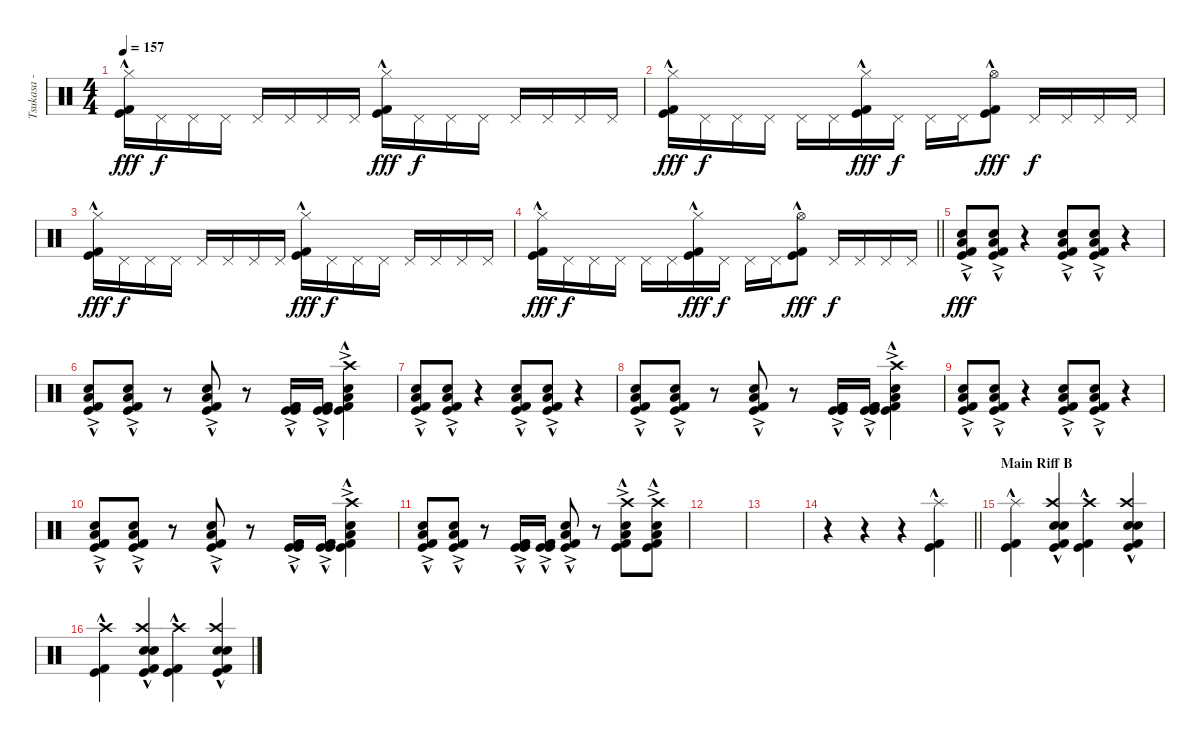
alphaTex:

\track ("Tsukasa - Drums" "Tsukasa - ") {instrument percussion}
\staff {score}
\articulation defaults
\ts (4 4)
\tempo 157
\clef neutral
\ks c
("Hi-Hat (closed)" "Kick (hit)"{hac} "Kick (hit) 2"{hac}).16{dy fff} "Pedal Hi-Hat (hit)".16{dy f} "Pedal Hi-Hat (hit)".16 "Pedal Hi-Hat (hit)".16 "Pedal Hi-Hat (hit)".16 "Pedal Hi-Hat (hit)".16 "Pedal Hi-Hat (hit)".16 "Pedal Hi-Hat (hit)".16 ("Hi-Hat (closed)" "Kick (hit)"{hac} "Kick (hit) 2"{hac}).16{dy fff} "Pedal Hi-Hat (hit)".16{dy f} "Pedal Hi-Hat (hit)".16 "Pedal Hi-Hat (hit)".16 "Pedal Hi-Hat (hit)".16 "Pedal Hi-Hat (hit)".16 "Pedal Hi-Hat (hit)".16 "Pedal Hi-Hat (hit)".16 |
("Hi-Hat (closed)" "Kick (hit)"{hac} "Kick (hit) 2"{hac}).16{dy fff} "Pedal Hi-Hat (hit)".16{dy f} "Pedal Hi-Hat (hit)".16 "Pedal Hi-Hat (hit)".16 "Pedal Hi-Hat (hit)".16 "Pedal Hi-Hat (hit)".16 ("Hi-Hat (closed)" "Kick (hit)"{hac} "Kick (hit) 2"{hac}).16{dy fff} "Pedal Hi-Hat (hit)".16{dy f} "Pedal Hi-Hat (hit)".16 "Pedal Hi-Hat (hit)".16 ("Hi-Hat (open)" "Kick (hit)"{hac} "Kick (hit) 2"{hac}).8{dy fff} "Pedal Hi-Hat (hit)".16{dy f} "Pedal Hi-Hat (hit)".16 "Pedal Hi-Hat (hit)".16 "Pedal Hi-Hat (hit)".16 |
("Hi-Hat (closed)" "Kick (hit)"{hac} "Kick (hit) 2"{hac}).16{dy fff} "Pedal Hi-Hat (hit)".16{dy f} "Pedal Hi-Hat (hit)".16 "Pedal Hi-Hat (hit)".16 "Pedal Hi-Hat (hit)".16 "Pedal Hi-Hat (hit)".16 "Pedal Hi-Hat (hit)".16 "Pedal Hi-Hat (hit)".16 ("Hi-Hat (closed)" "Kick (hit)"{hac} "Kick (hit) 2"{hac}).16{dy fff} "Pedal Hi-Hat (hit)".16{dy f} "Pedal Hi-Hat (hit)".16 "Pedal Hi-Hat (hit)".16 "Pedal Hi-Hat (hit)".16 "Pedal Hi-Hat (hit)".16 "Pedal Hi-Hat (hit)".16 "Pedal Hi-Hat (hit)".16 |
\barLineRight lightlight
("Hi-Hat (closed)" "Kick (hit)"{hac} "Kick (hit) 2"{hac}).16{dy fff} "Pedal Hi-Hat (hit)".16{dy f} "Pedal Hi-Hat (hit)".16 "Pedal Hi-Hat (hit)".16 "Pedal Hi-Hat (hit)".16 "Pedal Hi-Hat (hit)".16 ("Hi-Hat (closed)" "Kick (hit)"{hac} "Kick (hit) 2"{hac}).16{dy fff} "Pedal Hi-Hat (hit)".16{dy f} "Pedal Hi-Hat (hit)".16 "Pedal Hi-Hat (hit)".16 ("Hi-Hat (open)" "Kick (hit)"{hac} "Kick (hit) 2"{hac}).8{dy fff} "Pedal Hi-Hat (hit)".16{dy f} "Pedal Hi-Hat (hit)".16 "Pedal Hi-Hat (hit)".16 "Pedal Hi-Hat (hit)".16 |
\section ("" "")
("Electric Snare (hit)"{ac} "Low Tom (hit)" "Kick (hit)"{hac} "Kick (hit) 2"{hac}).8{dy fff} ("Electric Snare (hit)"{ac} "Low Tom (hit)" "Kick (hit)"{hac} "Kick (hit) 2"{hac}).8 r.4 ("Electric Snare (hit)"{ac} "Low Tom (hit)" "Kick (hit)"{hac} "Kick (hit) 2"{hac}).8 ("Electric Snare (hit)"{ac} "Low Tom (hit)" "Kick (hit)"{hac} "Kick (hit) 2"{hac}).8 r.4 |
("Electric Snare (hit)"{ac} "Low Tom (hit)" "Kick (hit)"{hac} "Kick (hit) 2"{hac}).8 ("Electric Snare (hit)"{ac} "Low Tom (hit)" "Kick (hit)"{hac} "Kick (hit) 2"{hac}).8 r.8 ("Electric Snare (hit)"{ac} "Low Tom (hit)" "Kick (hit)"{hac} "Kick (hit) 2"{hac}).8 r.8 ("Kick (hit)"{ac} "Kick (hit) 2"{ac} "Kick (hit)"{hac} "Kick (hit) 2"{hac}).16 ("Kick (hit)"{ac} "Kick (hit) 2"{ac} "Kick (hit) 2"{hac} "Kick (hit)"{hac}).16 ("Crash high (hit)" "Electric Snare (hit)"{ac} "Low Tom (hit)" "Kick (hit)"{hac} "Kick (hit) 2"{hac}).4 |
("Electric Snare (hit)"{ac} "Low Tom (hit)" "Kick (hit)"{hac} "Kick (hit) 2"{hac}).8 ("Electric Snare (hit)"{ac} "Low Tom (hit)" "Kick (hit)"{hac} "Kick (hit) 2"{hac}).8 r.4 ("Electric Snare (hit)"{ac} "Low Tom (hit)" "Kick (hit)"{hac} "Kick (hit) 2"{hac}).8 ("Electric Snare (hit)"{ac} "Low Tom (hit)" "Kick (hit)"{hac} "Kick (hit) 2"{hac}).8 r.4 |
("Electric Snare (hit)"{ac} "Low Tom (hit)" "Kick (hit)"{hac} "Kick (hit) 2"{hac}).8 ("Electric Snare (hit)"{ac} "Low Tom (hit)" "Kick (hit)"{hac} "Kick (hit) 2"{hac}).8 r.8 ("Electric Snare (hit)"{ac} "Low Tom (hit)" "Kick (hit)"{hac} "Kick (hit) 2"{hac}).8 r.8 ("Kick (hit)"{ac} "Kick (hit) 2"{ac} "Kick (hit)"{hac} "Kick (hit) 2"{hac}).16 ("Kick (hit)"{ac} "Kick (hit) 2"{ac} "Kick (hit) 2"{hac} "Kick (hit)"{hac}).16 ("Crash high (hit)" "Electric Snare (hit)"{ac} "Low Tom (hit)" "Kick (hit)"{hac} "Kick (hit) 2"{hac}).4 |
("Electric Snare (hit)"{ac} "Low Tom (hit)" "Kick (hit)"{hac} "Kick (hit) 2"{hac}).8 ("Electric Snare (hit)"{ac} "Low Tom (hit)" "Kick (hit)"{hac} "Kick (hit) 2"{hac}).8 r.4 ("Electric Snare (hit)"{ac} "Low Tom (hit)" "Kick (hit)"{hac} "Kick (hit) 2"{hac}).8 ("Electric Snare (hit)"{ac} "Low Tom (hit)" "Kick (hit)"{hac} "Kick (hit) 2"{hac}).8 r.4 |
("Electric Snare (hit)"{ac} "Low Tom (hit)" "Kick (hit)"{hac} "Kick (hit) 2"{hac}).8 ("Electric Snare (hit)"{ac} "Low Tom (hit)" "Kick (hit)"{hac} "Kick (hit) 2"{hac}).8 r.8 ("Electric Snare (hit)"{ac} "Low Tom (hit)" "Kick (hit)"{hac} "Kick (hit) 2"{hac}).8 r.8 ("Kick (hit)"{ac} "Kick (hit) 2"{ac} "Kick (hit)"{hac} "Kick (hit) 2"{hac}).16 ("Kick (hit)"{ac} "Kick (hit) 2"{ac} "Kick (hit) 2"{hac} "Kick (hit)"{hac}).16 ("Crash high (hit)" "Electric Snare (hit)"{ac} "Low Tom (hit)" "Kick (hit)"{hac} "Kick (hit) 2"{hac}).4 |
("Electric Snare (hit)"{ac} "Low Tom (hit)" "Kick (hit)"{hac} "Kick (hit) 2"{hac}).8 ("Electric Snare (hit)"{ac} "Low Tom (hit)" "Kick (hit)"{hac} "Kick (hit) 2"{hac}).8 r.8 ("Kick (hit)"{ac} "Kick (hit) 2"{ac} "Kick (hit)"{hac} "Kick (hit) 2"{hac}).16 ("Kick (hit)"{ac} "Kick (hit) 2"{ac} "Kick (hit) 2"{hac} "Kick (hit)"{hac}).16 ("Electric Snare (hit)"{ac} "Low Tom (hit)" "Kick (hit)"{hac} "Kick (hit) 2"{hac}).8 r.8 ("Crash high (hit)" "Electric Snare (hit)"{ac} "Low Tom (hit)" "Kick (hit)"{hac} "Kick (hit) 2"{hac}).8 ("Crash high (hit)" "Electric Snare (hit)"{ac} "Low Tom (hit)" "Kick (hit)"{hac} "Kick (hit) 2"{hac}).8 |
|
|
\barLineRight lightlight
r.4 r.4 r.4 ("Splash (hit)"{hac} "Kick (hit)"{hac} "Kick (hit) 2"{hac}).4 |
\section ("" "Main Riff B")
("Splash (hit)"{hac} "Kick (hit)"{hac} "Kick (hit) 2"{hac}).4 ("Crash high (hit)" "Electric Snare (hit)"{hac} "Snare (hit) 2" "Kick (hit)"{hac} "Kick (hit) 2"{hac}).4 ("Crash high (hit)" "Kick (hit)"{hac} "Kick (hit) 2"{hac}).4 ("Crash high (hit)" "Electric Snare (hit)"{hac} "Snare (hit) 2" "Kick (hit)"{hac} "Kick (hit) 2"{hac}).4 |
("Crash high (hit)" "Kick (hit)"{hac} "Kick (hit) 2"{hac}).4 ("Crash high (hit)" "Electric Snare (hit)"{hac} "Snare (hit) 2" "Kick (hit)"{hac} "Kick (hit) 2"{hac}).4 ("Crash high (hit)" "Kick (hit)"{hac} "Kick (hit) 2"{hac}).4 ("Crash high (hit)" "Electric Snare (hit)"{hac} "Snare (hit) 2" "Kick (hit)"{hac} "Kick (hit) 2"{hac}).4
